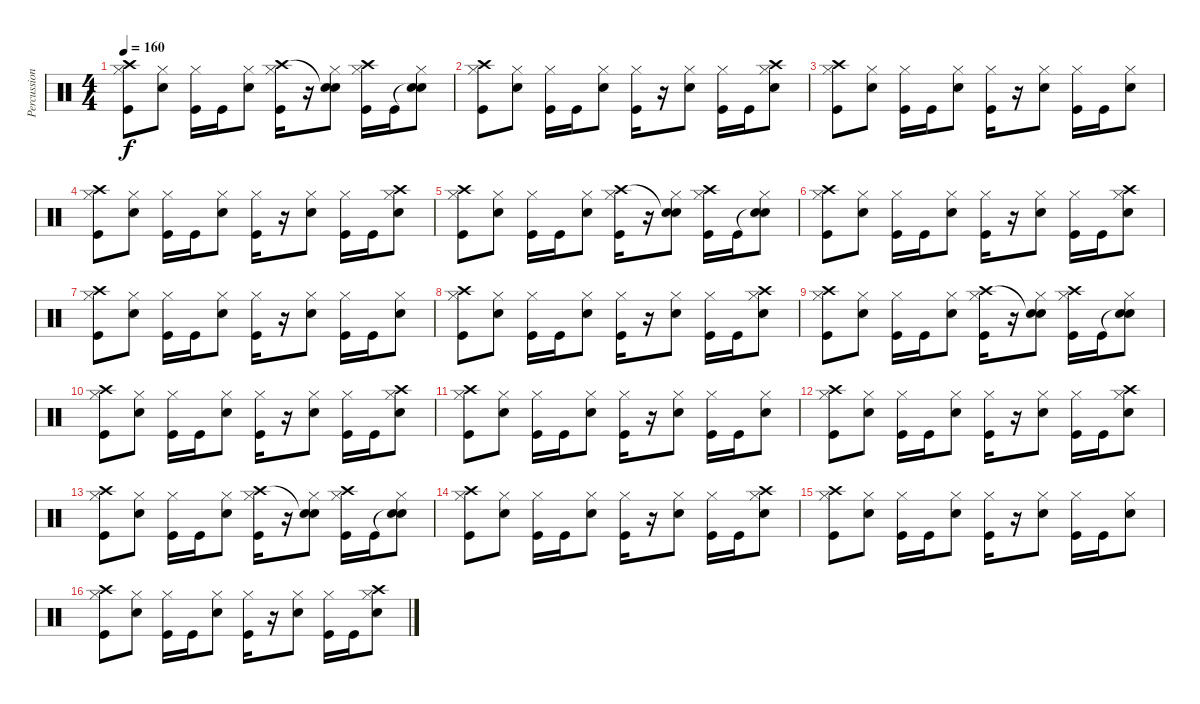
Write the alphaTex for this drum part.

\track ("Percussion" "Percussion") {instrument percussion}
\staff {score}
\articulation defaults
\ts (4 4)
\tempo 160
\clef neutral
\ks c
("Crash high (hit)" "Hi-Hat (closed)" "Kick (hit)").8{dy f} ("Hi-Hat (closed)" "Electric Snare (hit)").8 ("Hi-Hat (closed)" "Kick (hit)").16 "Kick (hit)".16 ("Hi-Hat (closed)" "Electric Snare (hit)").8 ("Crash high (hit)" "Hi-Hat (closed)" "Kick (hit)").16 r.16 ("Snare (hit)"{t} "Hi-Hat (closed)" "Electric Snare (hit)").8 ("Crash high (hit)" "Hi-Hat (closed)" "Kick (hit)").16 "Kick (hit)".16 ("Snare (hit)"{t} "Hi-Hat (closed)" "Electric Snare (hit)").8 |
("Crash high (hit)" "Hi-Hat (closed)" "Kick (hit)").8 ("Hi-Hat (closed)" "Electric Snare (hit)").8 ("Hi-Hat (closed)" "Kick (hit)").16 "Kick (hit)".16 ("Hi-Hat (closed)" "Electric Snare (hit)").8 ("Hi-Hat (closed)" "Kick (hit)").16 r.16 ("Hi-Hat (closed)" "Electric Snare (hit)").8 ("Hi-Hat (closed)" "Kick (hit)").16 "Kick (hit)".16 ("Crash high (hit)" "Hi-Hat (closed)" "Electric Snare (hit)").8 |
("Crash high (hit)" "Hi-Hat (closed)" "Kick (hit)").8 ("Hi-Hat (closed)" "Electric Snare (hit)").8 ("Hi-Hat (closed)" "Kick (hit)").16 "Kick (hit)".16 ("Hi-Hat (closed)" "Electric Snare (hit)").8 ("Hi-Hat (closed)" "Kick (hit)").16 r.16 ("Hi-Hat (closed)" "Electric Snare (hit)").8 ("Hi-Hat (closed)" "Kick (hit)").16 "Kick (hit)".16 ("Hi-Hat (closed)" "Electric Snare (hit)").8 |
("Crash high (hit)" "Hi-Hat (closed)" "Kick (hit)").8 ("Hi-Hat (closed)" "Electric Snare (hit)").8 ("Hi-Hat (closed)" "Kick (hit)").16 "Kick (hit)".16 ("Hi-Hat (closed)" "Electric Snare (hit)").8 ("Hi-Hat (closed)" "Kick (hit)").16 r.16 ("Hi-Hat (closed)" "Electric Snare (hit)").8 ("Hi-Hat (closed)" "Kick (hit)").16 "Kick (hit)".16 ("Crash high (hit)" "Hi-Hat (closed)" "Electric Snare (hit)").8 |
("Crash high (hit)" "Hi-Hat (closed)" "Kick (hit)").8 ("Hi-Hat (closed)" "Electric Snare (hit)").8 ("Hi-Hat (closed)" "Kick (hit)").16 "Kick (hit)".16 ("Hi-Hat (closed)" "Electric Snare (hit)").8 ("Crash high (hit)" "Hi-Hat (closed)" "Kick (hit)").16 r.16 ("Snare (hit)"{t} "Hi-Hat (closed)" "Electric Snare (hit)").8 ("Crash high (hit)" "Hi-Hat (closed)" "Kick (hit)").16 "Kick (hit)".16 ("Snare (hit)"{t} "Hi-Hat (closed)" "Electric Snare (hit)").8 |
("Crash high (hit)" "Hi-Hat (closed)" "Kick (hit)").8 ("Hi-Hat (closed)" "Electric Snare (hit)").8 ("Hi-Hat (closed)" "Kick (hit)").16 "Kick (hit)".16 ("Hi-Hat (closed)" "Electric Snare (hit)").8 ("Hi-Hat (closed)" "Kick (hit)").16 r.16 ("Hi-Hat (closed)" "Electric Snare (hit)").8 ("Hi-Hat (closed)" "Kick (hit)").16 "Kick (hit)".16 ("Crash high (hit)" "Hi-Hat (closed)" "Electric Snare (hit)").8 |
("Crash high (hit)" "Hi-Hat (closed)" "Kick (hit)").8 ("Hi-Hat (closed)" "Electric Snare (hit)").8 ("Hi-Hat (closed)" "Kick (hit)").16 "Kick (hit)".16 ("Hi-Hat (closed)" "Electric Snare (hit)").8 ("Hi-Hat (closed)" "Kick (hit)").16 r.16 ("Hi-Hat (closed)" "Electric Snare (hit)").8 ("Hi-Hat (closed)" "Kick (hit)").16 "Kick (hit)".16 ("Hi-Hat (closed)" "Electric Snare (hit)").8 |
("Crash high (hit)" "Hi-Hat (closed)" "Kick (hit)").8 ("Hi-Hat (closed)" "Electric Snare (hit)").8 ("Hi-Hat (closed)" "Kick (hit)").16 "Kick (hit)".16 ("Hi-Hat (closed)" "Electric Snare (hit)").8 ("Hi-Hat (closed)" "Kick (hit)").16 r.16 ("Hi-Hat (closed)" "Electric Snare (hit)").8 ("Hi-Hat (closed)" "Kick (hit)").16 "Kick (hit)".16 ("Crash high (hit)" "Hi-Hat (closed)" "Electric Snare (hit)").8 |
("Crash high (hit)" "Hi-Hat (closed)" "Kick (hit)").8 ("Hi-Hat (closed)" "Electric Snare (hit)").8 ("Hi-Hat (closed)" "Kick (hit)").16 "Kick (hit)".16 ("Hi-Hat (closed)" "Electric Snare (hit)").8 ("Crash high (hit)" "Hi-Hat (closed)" "Kick (hit)").16 r.16 ("Snare (hit)"{t} "Hi-Hat (closed)" "Electric Snare (hit)").8 ("Crash high (hit)" "Hi-Hat (closed)" "Kick (hit)").16 "Kick (hit)".16 ("Snare (hit)"{t} "Hi-Hat (closed)" "Electric Snare (hit)").8 |
("Crash high (hit)" "Hi-Hat (closed)" "Kick (hit)").8 ("Hi-Hat (closed)" "Electric Snare (hit)").8 ("Hi-Hat (closed)" "Kick (hit)").16 "Kick (hit)".16 ("Hi-Hat (closed)" "Electric Snare (hit)").8 ("Hi-Hat (closed)" "Kick (hit)").16 r.16 ("Hi-Hat (closed)" "Electric Snare (hit)").8 ("Hi-Hat (closed)" "Kick (hit)").16 "Kick (hit)".16 ("Crash high (hit)" "Hi-Hat (closed)" "Electric Snare (hit)").8 |
("Crash high (hit)" "Hi-Hat (closed)" "Kick (hit)").8 ("Hi-Hat (closed)" "Electric Snare (hit)").8 ("Hi-Hat (closed)" "Kick (hit)").16 "Kick (hit)".16 ("Hi-Hat (closed)" "Electric Snare (hit)").8 ("Hi-Hat (closed)" "Kick (hit)").16 r.16 ("Hi-Hat (closed)" "Electric Snare (hit)").8 ("Hi-Hat (closed)" "Kick (hit)").16 "Kick (hit)".16 ("Hi-Hat (closed)" "Electric Snare (hit)").8 |
("Crash high (hit)" "Hi-Hat (closed)" "Kick (hit)").8 ("Hi-Hat (closed)" "Electric Snare (hit)").8 ("Hi-Hat (closed)" "Kick (hit)").16 "Kick (hit)".16 ("Hi-Hat (closed)" "Electric Snare (hit)").8 ("Hi-Hat (closed)" "Kick (hit)").16 r.16 ("Hi-Hat (closed)" "Electric Snare (hit)").8 ("Hi-Hat (closed)" "Kick (hit)").16 "Kick (hit)".16 ("Crash high (hit)" "Hi-Hat (closed)" "Electric Snare (hit)").8 |
("Crash high (hit)" "Hi-Hat (closed)" "Kick (hit)").8 ("Hi-Hat (closed)" "Electric Snare (hit)").8 ("Hi-Hat (closed)" "Kick (hit)").16 "Kick (hit)".16 ("Hi-Hat (closed)" "Electric Snare (hit)").8 ("Crash high (hit)" "Hi-Hat (closed)" "Kick (hit)").16 r.16 ("Snare (hit)"{t} "Hi-Hat (closed)" "Electric Snare (hit)").8 ("Crash high (hit)" "Hi-Hat (closed)" "Kick (hit)").16 "Kick (hit)".16 ("Snare (hit)"{t} "Hi-Hat (closed)" "Electric Snare (hit)").8 |
("Crash high (hit)" "Hi-Hat (closed)" "Kick (hit)").8 ("Hi-Hat (closed)" "Electric Snare (hit)").8 ("Hi-Hat (closed)" "Kick (hit)").16 "Kick (hit)".16 ("Hi-Hat (closed)" "Electric Snare (hit)").8 ("Hi-Hat (closed)" "Kick (hit)").16 r.16 ("Hi-Hat (closed)" "Electric Snare (hit)").8 ("Hi-Hat (closed)" "Kick (hit)").16 "Kick (hit)".16 ("Crash high (hit)" "Hi-Hat (closed)" "Electric Snare (hit)").8 |
("Crash high (hit)" "Hi-Hat (closed)" "Kick (hit)").8 ("Hi-Hat (closed)" "Electric Snare (hit)").8 ("Hi-Hat (closed)" "Kick (hit)").16 "Kick (hit)".16 ("Hi-Hat (closed)" "Electric Snare (hit)").8 ("Hi-Hat (closed)" "Kick (hit)").16 r.16 ("Hi-Hat (closed)" "Electric Snare (hit)").8 ("Hi-Hat (closed)" "Kick (hit)").16 "Kick (hit)".16 ("Hi-Hat (closed)" "Electric Snare (hit)").8 |
("Crash high (hit)" "Hi-Hat (closed)" "Kick (hit)").8 ("Hi-Hat (closed)" "Electric Snare (hit)").8 ("Hi-Hat (closed)" "Kick (hit)").16 "Kick (hit)".16 ("Hi-Hat (closed)" "Electric Snare (hit)").8 ("Hi-Hat (closed)" "Kick (hit)").16 r.16 ("Hi-Hat (closed)" "Electric Snare (hit)").8 ("Hi-Hat (closed)" "Kick (hit)").16 "Kick (hit)".16 ("Crash high (hit)" "Hi-Hat (closed)" "Electric Snare (hit)").8
